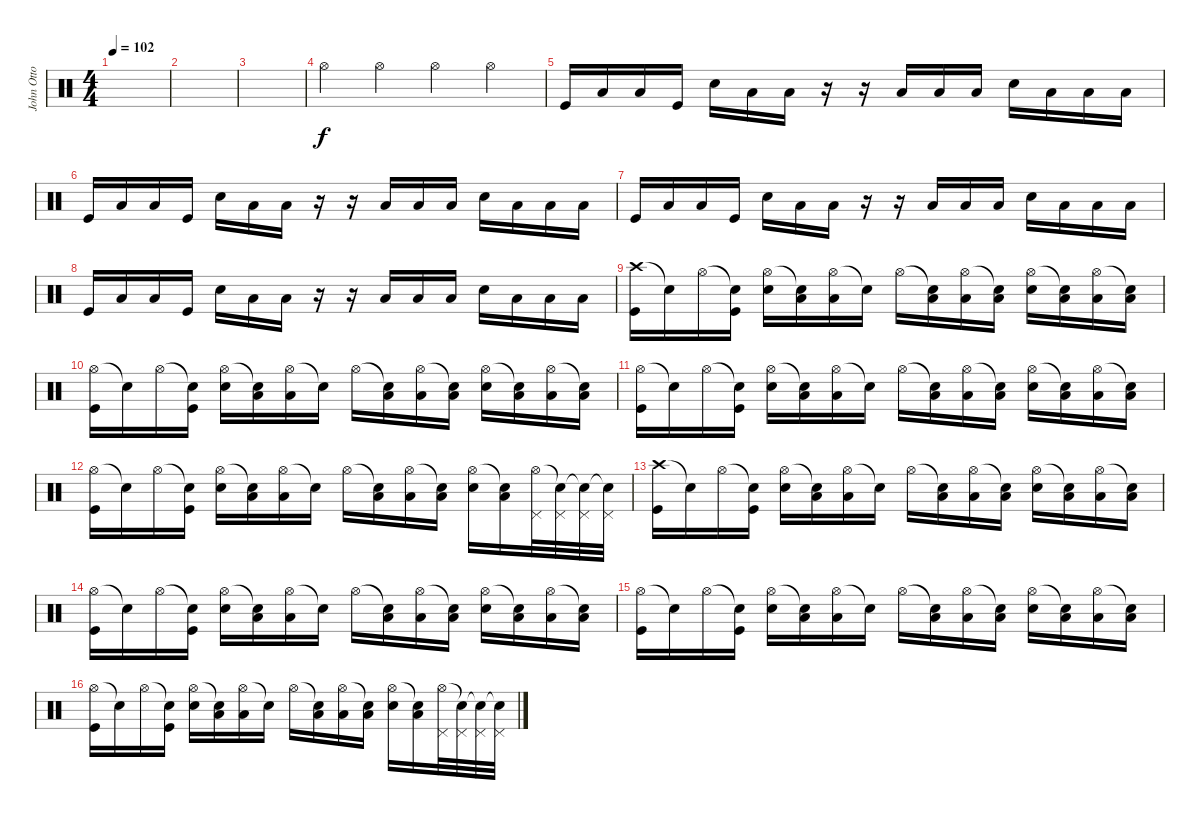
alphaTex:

\track ("John Otto (2nd Drums)" "John Otto ") {instrument percussion}
\staff {score}
\articulation defaults
\ts (4 4)
\tempo 102
\clef neutral
\ks c
|
|
|
"Hi-Hat (open)".4 "Hi-Hat (open)".4 "Hi-Hat (open)".4 "Hi-Hat (open)".4 |
"Kick (hit)".16 "Low Tom (hit)".16 "Low Tom (hit)".16 "Kick (hit)".16 "Snare (hit) 2".16 "Low Tom (hit)".16 "Low Tom (hit)".16 r.16 r.16 "Low Tom (hit)".16 "Low Tom (hit)".16 "Low Tom (hit)".16 "Snare (hit) 2".16 "Low Tom (hit)".16 "Low Tom (hit)".16 "Low Tom (hit)".16 |
"Kick (hit)".16 "Low Tom (hit)".16 "Low Tom (hit)".16 "Kick (hit)".16 "Snare (hit) 2".16 "Low Tom (hit)".16 "Low Tom (hit)".16 r.16 r.16 "Low Tom (hit)".16 "Low Tom (hit)".16 "Low Tom (hit)".16 "Snare (hit) 2".16 "Low Tom (hit)".16 "Low Tom (hit)".16 "Low Tom (hit)".16 |
"Kick (hit)".16 "Low Tom (hit)".16 "Low Tom (hit)".16 "Kick (hit)".16 "Snare (hit) 2".16 "Low Tom (hit)".16 "Low Tom (hit)".16 r.16 r.16 "Low Tom (hit)".16 "Low Tom (hit)".16 "Low Tom (hit)".16 "Snare (hit) 2".16 "Low Tom (hit)".16 "Low Tom (hit)".16 "Low Tom (hit)".16 |
"Kick (hit)".16 "Low Tom (hit)".16 "Low Tom (hit)".16 "Kick (hit)".16 "Snare (hit) 2".16 "Low Tom (hit)".16 "Low Tom (hit)".16 r.16 r.16 "Low Tom (hit)".16 "Low Tom (hit)".16 "Low Tom (hit)".16 "Snare (hit) 2".16 "Low Tom (hit)".16 "Low Tom (hit)".16 "Low Tom (hit)".16 |
("Crash high (hit)" "Kick (hit)").16 "Snare (hit)"{t}.16 "Hi-Hat (open)".16 ("Snare (hit)"{t} "Kick (hit)").16 ("Hi-Hat (open)" "Snare (hit) 2").16 ("Snare (hit)"{t} "Low Tom (hit)").16 ("Hi-Hat (open)" "Low Tom (hit)").16 "Snare (hit)"{t}.16 "Hi-Hat (open)".16 ("Snare (hit)"{t} "Low Tom (hit)").16 ("Hi-Hat (open)" "Low Tom (hit)").16 ("Snare (hit)"{t} "Low Tom (hit)").16 ("Hi-Hat (open)" "Snare (hit) 2").16 ("Snare (hit)"{t} "Low Tom (hit)").16 ("Hi-Hat (open)" "Low Tom (hit)").16 ("Snare (hit)"{t} "Low Tom (hit)").16 |
("Hi-Hat (open)" "Kick (hit)").16 "Snare (hit)"{t}.16 "Hi-Hat (open)".16 ("Snare (hit)"{t} "Kick (hit)").16 ("Hi-Hat (open)" "Snare (hit) 2").16 ("Snare (hit)"{t} "Low Tom (hit)").16 ("Hi-Hat (open)" "Low Tom (hit)").16 "Snare (hit)"{t}.16 "Hi-Hat (open)".16 ("Snare (hit)"{t} "Low Tom (hit)").16 ("Hi-Hat (open)" "Low Tom (hit)").16 ("Snare (hit)"{t} "Low Tom (hit)").16 ("Hi-Hat (open)" "Snare (hit) 2").16 ("Snare (hit)"{t} "Low Tom (hit)").16 ("Hi-Hat (open)" "Low Tom (hit)").16 ("Snare (hit)"{t} "Low Tom (hit)").16 |
("Hi-Hat (open)" "Kick (hit)").16 "Snare (hit)"{t}.16 "Hi-Hat (open)".16 ("Snare (hit)"{t} "Kick (hit)").16 ("Hi-Hat (open)" "Snare (hit) 2").16 ("Snare (hit)"{t} "Low Tom (hit)").16 ("Hi-Hat (open)" "Low Tom (hit)").16 "Snare (hit)"{t}.16 "Hi-Hat (open)".16 ("Snare (hit)"{t} "Low Tom (hit)").16 ("Hi-Hat (open)" "Low Tom (hit)").16 ("Snare (hit)"{t} "Low Tom (hit)").16 ("Hi-Hat (open)" "Snare (hit) 2").16 ("Snare (hit)"{t} "Low Tom (hit)").16 ("Hi-Hat (open)" "Low Tom (hit)").16 ("Snare (hit)"{t} "Low Tom (hit)").16 |
("Hi-Hat (open)" "Kick (hit)").16 "Snare (hit)"{t}.16 "Hi-Hat (open)".16 ("Snare (hit)"{t} "Kick (hit)").16 ("Hi-Hat (open)" "Snare (hit) 2").16 ("Snare (hit)"{t} "Low Tom (hit)").16 ("Hi-Hat (open)" "Low Tom (hit)").16 "Snare (hit)"{t}.16 "Hi-Hat (open)".16 ("Snare (hit)"{t} "Low Tom (hit)").16 ("Hi-Hat (open)" "Low Tom (hit)").16 ("Snare (hit)"{t} "Low Tom (hit)").16 ("Hi-Hat (open)" "Snare (hit) 2").16 ("Snare (hit)"{t} "Low Tom (hit)").16 ("Hi-Hat (open)" "Pedal Hi-Hat (hit)").32 ("Snare (hit)"{t} "Pedal Hi-Hat (hit)").32 ("Snare (hit)"{t} "Pedal Hi-Hat (hit)").32 ("Snare (hit)"{t} "Pedal Hi-Hat (hit)").32 |
("Crash high (hit)" "Kick (hit)").16 "Snare (hit)"{t}.16 "Hi-Hat (open)".16 ("Snare (hit)"{t} "Kick (hit)").16 ("Hi-Hat (open)" "Snare (hit) 2").16 ("Snare (hit)"{t} "Low Tom (hit)").16 ("Hi-Hat (open)" "Low Tom (hit)").16 "Snare (hit)"{t}.16 "Hi-Hat (open)".16 ("Snare (hit)"{t} "Low Tom (hit)").16 ("Hi-Hat (open)" "Low Tom (hit)").16 ("Snare (hit)"{t} "Low Tom (hit)").16 ("Hi-Hat (open)" "Snare (hit) 2").16 ("Snare (hit)"{t} "Low Tom (hit)").16 ("Hi-Hat (open)" "Low Tom (hit)").16 ("Snare (hit)"{t} "Low Tom (hit)").16 |
("Hi-Hat (open)" "Kick (hit)").16 "Snare (hit)"{t}.16 "Hi-Hat (open)".16 ("Snare (hit)"{t} "Kick (hit)").16 ("Hi-Hat (open)" "Snare (hit) 2").16 ("Snare (hit)"{t} "Low Tom (hit)").16 ("Hi-Hat (open)" "Low Tom (hit)").16 "Snare (hit)"{t}.16 "Hi-Hat (open)".16 ("Snare (hit)"{t} "Low Tom (hit)").16 ("Hi-Hat (open)" "Low Tom (hit)").16 ("Snare (hit)"{t} "Low Tom (hit)").16 ("Hi-Hat (open)" "Snare (hit) 2").16 ("Snare (hit)"{t} "Low Tom (hit)").16 ("Hi-Hat (open)" "Low Tom (hit)").16 ("Snare (hit)"{t} "Low Tom (hit)").16 |
("Hi-Hat (open)" "Kick (hit)").16 "Snare (hit)"{t}.16 "Hi-Hat (open)".16 ("Snare (hit)"{t} "Kick (hit)").16 ("Hi-Hat (open)" "Snare (hit) 2").16 ("Snare (hit)"{t} "Low Tom (hit)").16 ("Hi-Hat (open)" "Low Tom (hit)").16 "Snare (hit)"{t}.16 "Hi-Hat (open)".16 ("Snare (hit)"{t} "Low Tom (hit)").16 ("Hi-Hat (open)" "Low Tom (hit)").16 ("Snare (hit)"{t} "Low Tom (hit)").16 ("Hi-Hat (open)" "Snare (hit) 2").16 ("Snare (hit)"{t} "Low Tom (hit)").16 ("Hi-Hat (open)" "Low Tom (hit)").16 ("Snare (hit)"{t} "Low Tom (hit)").16 |
("Hi-Hat (open)" "Kick (hit)").16 "Snare (hit)"{t}.16 "Hi-Hat (open)".16 ("Snare (hit)"{t} "Kick (hit)").16 ("Hi-Hat (open)" "Snare (hit) 2").16 ("Snare (hit)"{t} "Low Tom (hit)").16 ("Hi-Hat (open)" "Low Tom (hit)").16 "Snare (hit)"{t}.16 "Hi-Hat (open)".16 ("Snare (hit)"{t} "Low Tom (hit)").16 ("Hi-Hat (open)" "Low Tom (hit)").16 ("Snare (hit)"{t} "Low Tom (hit)").16 ("Hi-Hat (open)" "Snare (hit) 2").16 ("Snare (hit)"{t} "Low Tom (hit)").16 ("Hi-Hat (open)" "Pedal Hi-Hat (hit)").32 ("Snare (hit)"{t} "Pedal Hi-Hat (hit)").32 ("Snare (hit)"{t} "Pedal Hi-Hat (hit)").32 ("Snare (hit)"{t} "Pedal Hi-Hat (hit)").32
